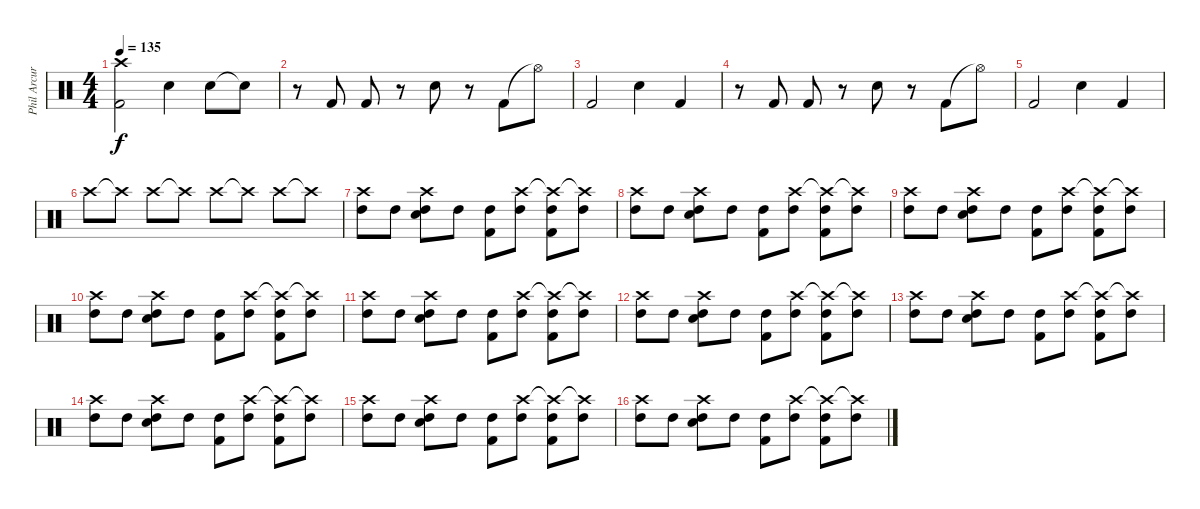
\track ("Phil Arcuri drums" "Phil Arcur") {instrument percussion}
\staff {score}
\articulation defaults
\ts (4 4)
\tempo 135
\clef neutral
\ks c
("Kick (hit) 2" "Crash high (hit)").2{dy f} "Electric Snare (hit)".4 "Snare (hit) 2".8 "Snare (hit)"{t}.8 |
r.8 "Kick (hit) 2".8 "Kick (hit) 2".8 r.8 "Snare (hit) 2".8 r.8 "Kick (hit) 2".8 "Hi-Hat (open)"{t}.8 |
"Kick (hit) 2".2 "Electric Snare (hit)".4 "Kick (hit) 2".4 |
r.8 "Kick (hit) 2".8 "Kick (hit) 2".8 r.8 "Snare (hit) 2".8 r.8 "Kick (hit) 2".8 "Hi-Hat (open)"{t}.8 |
"Kick (hit) 2".2 "Electric Snare (hit)".4 "Kick (hit) 2".4 |
"Crash high (hit)".8 "Crash high (hit)"{t}.8 "Crash high (hit)".8 "Crash high (hit)"{t}.8 "Crash high (hit)".8 "Crash high (hit)"{t}.8 "Crash high (hit)".8 "Crash high (hit)"{t}.8 |
("Crash high (hit)" "High Tom (hit)").8 "High Tom (hit)".8 ("Crash high (hit)" "Snare (hit) 2" "High Tom (hit)").8 "High Tom (hit)".8 ("Kick (hit) 2" "High Tom (hit)").8 ("Crash high (hit)" "High Tom (hit)").8 ("Crash high (hit)"{t} "Kick (hit) 2" "High Tom (hit)").8 ("Crash high (hit)"{t} "High Tom (hit)").8 |
("Crash high (hit)" "High Tom (hit)").8 "High Tom (hit)".8 ("Crash high (hit)" "Snare (hit) 2" "High Tom (hit)").8 "High Tom (hit)".8 ("Kick (hit) 2" "High Tom (hit)").8 ("Crash high (hit)" "High Tom (hit)").8 ("Crash high (hit)"{t} "Kick (hit) 2" "High Tom (hit)").8 ("Crash high (hit)"{t} "High Tom (hit)").8 |
("Crash high (hit)" "High Tom (hit)").8 "High Tom (hit)".8 ("Crash high (hit)" "Snare (hit) 2" "High Tom (hit)").8 "High Tom (hit)".8 ("Kick (hit) 2" "High Tom (hit)").8 ("Crash high (hit)" "High Tom (hit)").8 ("Crash high (hit)"{t} "Kick (hit) 2" "High Tom (hit)").8 ("Crash high (hit)"{t} "High Tom (hit)").8 |
("Crash high (hit)" "High Tom (hit)").8 "High Tom (hit)".8 ("Crash high (hit)" "Snare (hit) 2" "High Tom (hit)").8 "High Tom (hit)".8 ("Kick (hit) 2" "High Tom (hit)").8 ("Crash high (hit)" "High Tom (hit)").8 ("Crash high (hit)"{t} "Kick (hit) 2" "High Tom (hit)").8 ("Crash high (hit)"{t} "High Tom (hit)").8 |
("Crash high (hit)" "High Tom (hit)").8 "High Tom (hit)".8 ("Crash high (hit)" "Snare (hit) 2" "High Tom (hit)").8 "High Tom (hit)".8 ("Kick (hit) 2" "High Tom (hit)").8 ("Crash high (hit)" "High Tom (hit)").8 ("Crash high (hit)"{t} "Kick (hit) 2" "High Tom (hit)").8 ("Crash high (hit)"{t} "High Tom (hit)").8 |
("Crash high (hit)" "High Tom (hit)").8 "High Tom (hit)".8 ("Crash high (hit)" "Snare (hit) 2" "High Tom (hit)").8 "High Tom (hit)".8 ("Kick (hit) 2" "High Tom (hit)").8 ("Crash high (hit)" "High Tom (hit)").8 ("Crash high (hit)"{t} "Kick (hit) 2" "High Tom (hit)").8 ("Crash high (hit)"{t} "High Tom (hit)").8 |
("Crash high (hit)" "High Tom (hit)").8 "High Tom (hit)".8 ("Crash high (hit)" "Snare (hit) 2" "High Tom (hit)").8 "High Tom (hit)".8 ("Kick (hit) 2" "High Tom (hit)").8 ("Crash high (hit)" "High Tom (hit)").8 ("Crash high (hit)"{t} "Kick (hit) 2" "High Tom (hit)").8 ("Crash high (hit)"{t} "High Tom (hit)").8 |
("Crash high (hit)" "High Tom (hit)").8 "High Tom (hit)".8 ("Crash high (hit)" "Snare (hit) 2" "High Tom (hit)").8 "High Tom (hit)".8 ("Kick (hit) 2" "High Tom (hit)").8 ("Crash high (hit)" "High Tom (hit)").8 ("Crash high (hit)"{t} "Kick (hit) 2" "High Tom (hit)").8 ("Crash high (hit)"{t} "High Tom (hit)").8 |
("Crash high (hit)" "High Tom (hit)").8 "High Tom (hit)".8 ("Crash high (hit)" "Snare (hit) 2" "High Tom (hit)").8 "High Tom (hit)".8 ("Kick (hit) 2" "High Tom (hit)").8 ("Crash high (hit)" "High Tom (hit)").8 ("Crash high (hit)"{t} "Kick (hit) 2" "High Tom (hit)").8 ("Crash high (hit)"{t} "High Tom (hit)").8 |
("Crash high (hit)" "High Tom (hit)").8 "High Tom (hit)".8 ("Crash high (hit)" "Snare (hit) 2" "High Tom (hit)").8 "High Tom (hit)".8 ("Kick (hit) 2" "High Tom (hit)").8 ("Crash high (hit)" "High Tom (hit)").8 ("Crash high (hit)"{t} "Kick (hit) 2" "High Tom (hit)").8 ("Crash high (hit)"{t} "High Tom (hit)").8
